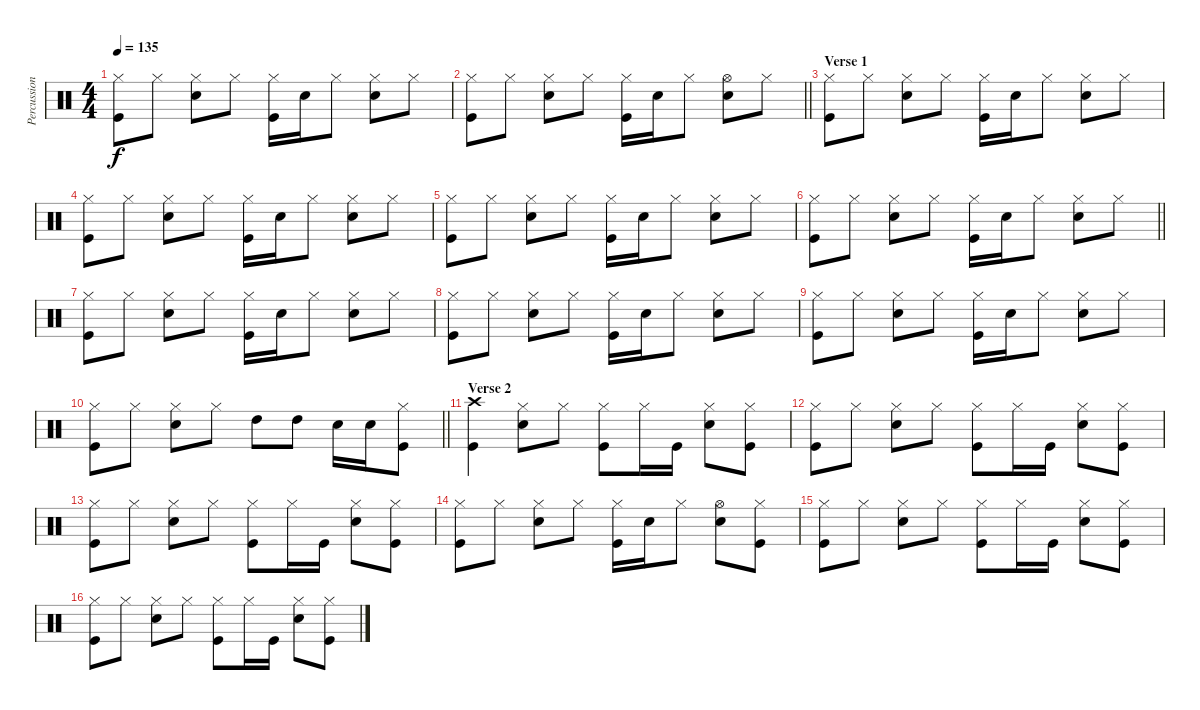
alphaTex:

\track ("Percussion" "Percussion") {instrument percussion}
\staff {score}
\articulation defaults
\ts (4 4)
\tempo 135
\clef neutral
\ks c
("Kick (hit)" "Hi-Hat (closed)").8{dy f} "Hi-Hat (closed)".8 ("Hi-Hat (closed)" "Snare (hit) 2").8 "Hi-Hat (closed)".8 ("Kick (hit)" "Hi-Hat (closed)").16 "Snare (hit) 2".16 "Hi-Hat (closed)".8 ("Hi-Hat (closed)" "Snare (hit) 2").8 "Hi-Hat (closed)".8 |
\barLineRight lightlight
("Kick (hit)" "Hi-Hat (closed)").8 "Hi-Hat (closed)".8 ("Hi-Hat (closed)" "Snare (hit) 2").8 "Hi-Hat (closed)".8 ("Kick (hit)" "Hi-Hat (closed)").16 "Snare (hit) 2".16 "Hi-Hat (closed)".8 ("Hi-Hat (open)" "Snare (hit) 2").8 "Hi-Hat (closed)".8 |
\section ("" "Verse 1")
("Kick (hit)" "Hi-Hat (closed)").8 "Hi-Hat (closed)".8 ("Hi-Hat (closed)" "Snare (hit) 2").8 "Hi-Hat (closed)".8 ("Kick (hit)" "Hi-Hat (closed)").16 "Snare (hit) 2".16 "Hi-Hat (closed)".8 ("Hi-Hat (closed)" "Snare (hit) 2").8 "Hi-Hat (closed)".8 |
("Kick (hit)" "Hi-Hat (closed)").8 "Hi-Hat (closed)".8 ("Hi-Hat (closed)" "Snare (hit) 2").8 "Hi-Hat (closed)".8 ("Kick (hit)" "Hi-Hat (closed)").16 "Snare (hit) 2".16 "Hi-Hat (closed)".8 ("Hi-Hat (closed)" "Snare (hit) 2").8 "Hi-Hat (closed)".8 |
("Kick (hit)" "Hi-Hat (closed)").8 "Hi-Hat (closed)".8 ("Hi-Hat (closed)" "Snare (hit) 2").8 "Hi-Hat (closed)".8 ("Kick (hit)" "Hi-Hat (closed)").16 "Snare (hit) 2".16 "Hi-Hat (closed)".8 ("Hi-Hat (closed)" "Snare (hit) 2").8 "Hi-Hat (closed)".8 |
\barLineRight lightlight
("Kick (hit)" "Hi-Hat (closed)").8 "Hi-Hat (closed)".8 ("Hi-Hat (closed)" "Snare (hit) 2").8 "Hi-Hat (closed)".8 ("Kick (hit)" "Hi-Hat (closed)").16 "Snare (hit) 2".16 "Hi-Hat (closed)".8 ("Hi-Hat (closed)" "Snare (hit) 2").8 "Hi-Hat (closed)".8 |
("Kick (hit)" "Hi-Hat (closed)").8 "Hi-Hat (closed)".8 ("Hi-Hat (closed)" "Snare (hit) 2").8 "Hi-Hat (closed)".8 ("Kick (hit)" "Hi-Hat (closed)").16 "Snare (hit) 2".16 "Hi-Hat (closed)".8 ("Hi-Hat (closed)" "Snare (hit) 2").8 "Hi-Hat (closed)".8 |
("Kick (hit)" "Hi-Hat (closed)").8 "Hi-Hat (closed)".8 ("Hi-Hat (closed)" "Snare (hit) 2").8 "Hi-Hat (closed)".8 ("Kick (hit)" "Hi-Hat (closed)").16 "Snare (hit) 2".16 "Hi-Hat (closed)".8 ("Hi-Hat (closed)" "Snare (hit) 2").8 "Hi-Hat (closed)".8 |
("Kick (hit)" "Hi-Hat (closed)").8 "Hi-Hat (closed)".8 ("Hi-Hat (closed)" "Snare (hit) 2").8 "Hi-Hat (closed)".8 ("Kick (hit)" "Hi-Hat (closed)").16 "Snare (hit) 2".16 "Hi-Hat (closed)".8 ("Hi-Hat (closed)" "Snare (hit) 2").8 "Hi-Hat (closed)".8 |
\barLineRight lightlight
("Kick (hit)" "Hi-Hat (closed)").8 "Hi-Hat (closed)".8 ("Hi-Hat (closed)" "Snare (hit) 2").8 "Hi-Hat (closed)".8 "High Tom (hit)".8 "High Tom (hit)".8 "Snare (hit) 2".16 "Snare (hit) 2".16 ("Kick (hit)" "Hi-Hat (closed)").8 |
\section ("" "Verse 2")
("Kick (hit)" "Crash high (hit)").4 ("Hi-Hat (closed)" "Snare (hit) 2").8 "Hi-Hat (closed)".8 ("Kick (hit)" "Hi-Hat (closed)").8 "Hi-Hat (closed)".16 "Kick (hit)".16 ("Hi-Hat (closed)" "Snare (hit) 2").8 ("Kick (hit)" "Hi-Hat (closed)").8 |
("Kick (hit)" "Hi-Hat (closed)").8 "Hi-Hat (closed)".8 ("Hi-Hat (closed)" "Snare (hit) 2").8 "Hi-Hat (closed)".8 ("Kick (hit)" "Hi-Hat (closed)").8 "Hi-Hat (closed)".16 "Kick (hit)".16 ("Hi-Hat (closed)" "Snare (hit) 2").8 ("Kick (hit)" "Hi-Hat (closed)").8 |
("Kick (hit)" "Hi-Hat (closed)").8 "Hi-Hat (closed)".8 ("Hi-Hat (closed)" "Snare (hit) 2").8 "Hi-Hat (closed)".8 ("Kick (hit)" "Hi-Hat (closed)").8 "Hi-Hat (closed)".16 "Kick (hit)".16 ("Hi-Hat (closed)" "Snare (hit) 2").8 ("Kick (hit)" "Hi-Hat (closed)").8 |
("Kick (hit)" "Hi-Hat (closed)").8 "Hi-Hat (closed)".8 ("Hi-Hat (closed)" "Snare (hit) 2").8 "Hi-Hat (closed)".8 ("Kick (hit)" "Hi-Hat (closed)").16 "Snare (hit) 2".16 "Hi-Hat (closed)".8 ("Hi-Hat (open)" "Snare (hit) 2").8 ("Kick (hit)" "Hi-Hat (closed)").8 |
("Kick (hit)" "Hi-Hat (closed)").8 "Hi-Hat (closed)".8 ("Hi-Hat (closed)" "Snare (hit) 2").8 "Hi-Hat (closed)".8 ("Kick (hit)" "Hi-Hat (closed)").8 "Hi-Hat (closed)".16 "Kick (hit)".16 ("Hi-Hat (closed)" "Snare (hit) 2").8 ("Kick (hit)" "Hi-Hat (closed)").8 |
("Kick (hit)" "Hi-Hat (closed)").8 "Hi-Hat (closed)".8 ("Hi-Hat (closed)" "Snare (hit) 2").8 "Hi-Hat (closed)".8 ("Kick (hit)" "Hi-Hat (closed)").8 "Hi-Hat (closed)".16 "Kick (hit)".16 ("Hi-Hat (closed)" "Snare (hit) 2").8 ("Kick (hit)" "Hi-Hat (closed)").8
